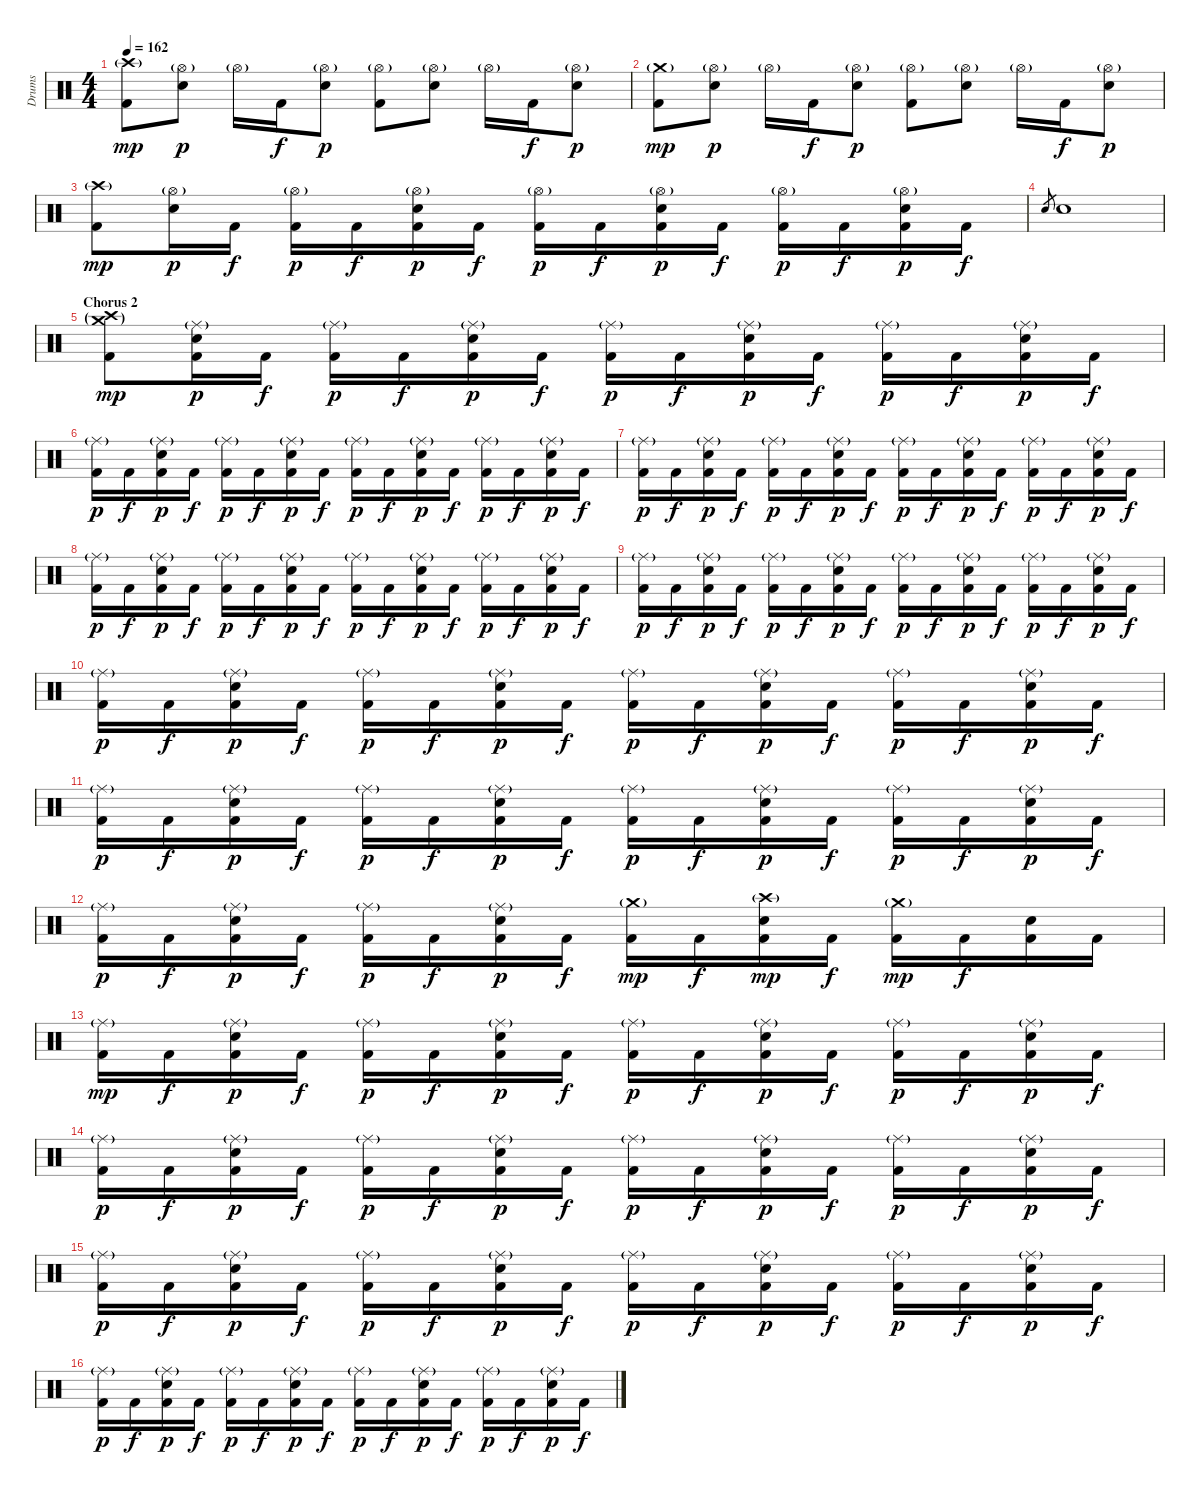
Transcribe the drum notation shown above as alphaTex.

\track ("Drums" "Drums") {instrument percussion}
\staff {score}
\articulation defaults
\ts (4 4)
\tempo 162
\clef neutral
\ks c
("Crash high (hit)"{g} "Kick (hit) 2").8{dy mp} ("Hi-Hat (open)"{g} "Snare (hit) 2").8{dy p} "Hi-Hat (open)"{g}.16 "Kick (hit) 2".16{dy f} ("Hi-Hat (open)"{g} "Snare (hit) 2").8{dy p} ("Hi-Hat (open)"{g} "Kick (hit) 2").8 ("Hi-Hat (open)"{g} "Snare (hit) 2").8 "Hi-Hat (open)"{g}.16 "Kick (hit) 2".16{dy f} ("Hi-Hat (open)"{g} "Snare (hit) 2").8{dy p} |
("Crash medium (hit)"{g} "Kick (hit) 2").8{dy mp} ("Hi-Hat (open)"{g} "Snare (hit) 2").8{dy p} "Hi-Hat (open)"{g}.16 "Kick (hit) 2".16{dy f} ("Hi-Hat (open)"{g} "Snare (hit) 2").8{dy p} ("Hi-Hat (open)"{g} "Kick (hit) 2").8 ("Hi-Hat (open)"{g} "Snare (hit) 2").8 "Hi-Hat (open)"{g}.16 "Kick (hit) 2".16{dy f} ("Hi-Hat (open)"{g} "Snare (hit) 2").8{dy p} |
("Crash high (hit)"{g} "Kick (hit) 2").8{dy mp} ("Hi-Hat (open)"{g} "Snare (hit) 2").16{dy p} "Kick (hit) 2".16{dy f} ("Hi-Hat (open)"{g} "Kick (hit) 2").16{dy p} "Kick (hit) 2".16{dy f} ("Hi-Hat (open)"{g} "Snare (hit) 2" "Kick (hit) 2").16{dy p} "Kick (hit) 2".16{dy f} ("Hi-Hat (open)"{g} "Kick (hit) 2").16{dy p} "Kick (hit) 2".16{dy f} ("Hi-Hat (open)"{g} "Snare (hit) 2" "Kick (hit) 2").16{dy p} "Kick (hit) 2".16{dy f} ("Hi-Hat (open)"{g} "Kick (hit) 2").16{dy p} "Kick (hit) 2".16{dy f} ("Hi-Hat (open)"{g} "Snare (hit) 2" "Kick (hit) 2").16{dy p} "Kick (hit) 2".16{dy f} |
"Snare (hit) 2".8{gr} "Snare (hit) 2".1 |
\section ("" "Chorus 2")
("Crash medium (hit)"{g} "Crash high (hit)"{g} "Kick (hit) 2").8{dy mp} ("Ride (middle)"{g} "Snare (hit) 2" "Kick (hit) 2").16{dy p} "Kick (hit) 2".16{dy f} ("Ride (middle)"{g} "Kick (hit) 2").16{dy p} "Kick (hit) 2".16{dy f} ("Ride (middle)"{g} "Snare (hit) 2" "Kick (hit) 2").16{dy p} "Kick (hit) 2".16{dy f} ("Ride (middle)"{g} "Kick (hit) 2").16{dy p} "Kick (hit) 2".16{dy f} ("Ride (middle)"{g} "Snare (hit) 2" "Kick (hit) 2").16{dy p} "Kick (hit) 2".16{dy f} ("Ride (middle)"{g} "Kick (hit) 2").16{dy p} "Kick (hit) 2".16{dy f} ("Ride (middle)"{g} "Snare (hit) 2" "Kick (hit) 2").16{dy p} "Kick (hit) 2".16{dy f} |
("Ride (middle)"{g} "Kick (hit) 2").16{dy p} "Kick (hit) 2".16{dy f} ("Ride (middle)"{g} "Snare (hit) 2" "Kick (hit) 2").16{dy p} "Kick (hit) 2".16{dy f} ("Ride (middle)"{g} "Kick (hit) 2").16{dy p} "Kick (hit) 2".16{dy f} ("Ride (middle)"{g} "Snare (hit) 2" "Kick (hit) 2").16{dy p} "Kick (hit) 2".16{dy f} ("Ride (middle)"{g} "Kick (hit) 2").16{dy p} "Kick (hit) 2".16{dy f} ("Ride (middle)"{g} "Snare (hit) 2" "Kick (hit) 2").16{dy p} "Kick (hit) 2".16{dy f} ("Ride (middle)"{g} "Kick (hit) 2").16{dy p} "Kick (hit) 2".16{dy f} ("Ride (middle)"{g} "Snare (hit) 2" "Kick (hit) 2").16{dy p} "Kick (hit) 2".16{dy f} |
("Ride (middle)"{g} "Kick (hit) 2").16{dy p} "Kick (hit) 2".16{dy f} ("Ride (middle)"{g} "Snare (hit) 2" "Kick (hit) 2").16{dy p} "Kick (hit) 2".16{dy f} ("Ride (middle)"{g} "Kick (hit) 2").16{dy p} "Kick (hit) 2".16{dy f} ("Ride (middle)"{g} "Snare (hit) 2" "Kick (hit) 2").16{dy p} "Kick (hit) 2".16{dy f} ("Ride (middle)"{g} "Kick (hit) 2").16{dy p} "Kick (hit) 2".16{dy f} ("Ride (middle)"{g} "Snare (hit) 2" "Kick (hit) 2").16{dy p} "Kick (hit) 2".16{dy f} ("Ride (middle)"{g} "Kick (hit) 2").16{dy p} "Kick (hit) 2".16{dy f} ("Ride (middle)"{g} "Snare (hit) 2" "Kick (hit) 2").16{dy p} "Kick (hit) 2".16{dy f} |
("Ride (middle)"{g} "Kick (hit) 2").16{dy p} "Kick (hit) 2".16{dy f} ("Ride (middle)"{g} "Snare (hit) 2" "Kick (hit) 2").16{dy p} "Kick (hit) 2".16{dy f} ("Ride (middle)"{g} "Kick (hit) 2").16{dy p} "Kick (hit) 2".16{dy f} ("Ride (middle)"{g} "Snare (hit) 2" "Kick (hit) 2").16{dy p} "Kick (hit) 2".16{dy f} ("Ride (middle)"{g} "Kick (hit) 2").16{dy p} "Kick (hit) 2".16{dy f} ("Ride (middle)"{g} "Snare (hit) 2" "Kick (hit) 2").16{dy p} "Kick (hit) 2".16{dy f} ("Ride (middle)"{g} "Kick (hit) 2").16{dy p} "Kick (hit) 2".16{dy f} ("Ride (middle)"{g} "Snare (hit) 2" "Kick (hit) 2").16{dy p} "Kick (hit) 2".16{dy f} |
("Ride (middle)"{g} "Kick (hit) 2").16{dy p} "Kick (hit) 2".16{dy f} ("Ride (middle)"{g} "Snare (hit) 2" "Kick (hit) 2").16{dy p} "Kick (hit) 2".16{dy f} ("Ride (middle)"{g} "Kick (hit) 2").16{dy p} "Kick (hit) 2".16{dy f} ("Ride (middle)"{g} "Snare (hit) 2" "Kick (hit) 2").16{dy p} "Kick (hit) 2".16{dy f} ("Ride (middle)"{g} "Kick (hit) 2").16{dy p} "Kick (hit) 2".16{dy f} ("Ride (middle)"{g} "Snare (hit) 2" "Kick (hit) 2").16{dy p} "Kick (hit) 2".16{dy f} ("Ride (middle)"{g} "Kick (hit) 2").16{dy p} "Kick (hit) 2".16{dy f} ("Ride (middle)"{g} "Snare (hit) 2" "Kick (hit) 2").16{dy p} "Kick (hit) 2".16{dy f} |
("Ride (middle)"{g} "Kick (hit) 2").16{dy p} "Kick (hit) 2".16{dy f} ("Ride (middle)"{g} "Snare (hit) 2" "Kick (hit) 2").16{dy p} "Kick (hit) 2".16{dy f} ("Ride (middle)"{g} "Kick (hit) 2").16{dy p} "Kick (hit) 2".16{dy f} ("Ride (middle)"{g} "Snare (hit) 2" "Kick (hit) 2").16{dy p} "Kick (hit) 2".16{dy f} ("Ride (middle)"{g} "Kick (hit) 2").16{dy p} "Kick (hit) 2".16{dy f} ("Ride (middle)"{g} "Snare (hit) 2" "Kick (hit) 2").16{dy p} "Kick (hit) 2".16{dy f} ("Ride (middle)"{g} "Kick (hit) 2").16{dy p} "Kick (hit) 2".16{dy f} ("Ride (middle)"{g} "Snare (hit) 2" "Kick (hit) 2").16{dy p} "Kick (hit) 2".16{dy f} |
("Ride (middle)"{g} "Kick (hit) 2").16{dy p} "Kick (hit) 2".16{dy f} ("Ride (middle)"{g} "Snare (hit) 2" "Kick (hit) 2").16{dy p} "Kick (hit) 2".16{dy f} ("Ride (middle)"{g} "Kick (hit) 2").16{dy p} "Kick (hit) 2".16{dy f} ("Ride (middle)"{g} "Snare (hit) 2" "Kick (hit) 2").16{dy p} "Kick (hit) 2".16{dy f} ("Ride (middle)"{g} "Kick (hit) 2").16{dy p} "Kick (hit) 2".16{dy f} ("Ride (middle)"{g} "Snare (hit) 2" "Kick (hit) 2").16{dy p} "Kick (hit) 2".16{dy f} ("Ride (middle)"{g} "Kick (hit) 2").16{dy p} "Kick (hit) 2".16{dy f} ("Ride (middle)"{g} "Snare (hit) 2" "Kick (hit) 2").16{dy p} "Kick (hit) 2".16{dy f} |
("Ride (middle)"{g} "Kick (hit) 2").16{dy p} "Kick (hit) 2".16{dy f} ("Ride (middle)"{g} "Snare (hit) 2" "Kick (hit) 2").16{dy p} "Kick (hit) 2".16{dy f} ("Ride (middle)"{g} "Kick (hit) 2").16{dy p} "Kick (hit) 2".16{dy f} ("Ride (middle)"{g} "Snare (hit) 2" "Kick (hit) 2").16{dy p} "Kick (hit) 2".16{dy f} ("Crash medium (hit)"{g} "Kick (hit) 2").16{dy mp} "Kick (hit) 2".16{dy f} ("Crash high (hit)"{g} "Snare (hit) 2" "Kick (hit) 2").16{dy mp} "Kick (hit) 2".16{dy f} ("Crash medium (hit)"{g} "Kick (hit) 2").16{dy mp} "Kick (hit) 2".16{dy f} ("Snare (hit) 2" "Kick (hit) 2").16 "Kick (hit) 2".16 |
("Ride (middle)"{g} "Kick (hit) 2").16{dy mp} "Kick (hit) 2".16{dy f} ("Ride (middle)"{g} "Snare (hit) 2" "Kick (hit) 2").16{dy p} "Kick (hit) 2".16{dy f} ("Ride (middle)"{g} "Kick (hit) 2").16{dy p} "Kick (hit) 2".16{dy f} ("Ride (middle)"{g} "Snare (hit) 2" "Kick (hit) 2").16{dy p} "Kick (hit) 2".16{dy f} ("Ride (middle)"{g} "Kick (hit) 2").16{dy p} "Kick (hit) 2".16{dy f} ("Ride (middle)"{g} "Snare (hit) 2" "Kick (hit) 2").16{dy p} "Kick (hit) 2".16{dy f} ("Ride (middle)"{g} "Kick (hit) 2").16{dy p} "Kick (hit) 2".16{dy f} ("Ride (middle)"{g} "Snare (hit) 2" "Kick (hit) 2").16{dy p} "Kick (hit) 2".16{dy f} |
("Ride (middle)"{g} "Kick (hit) 2").16{dy p} "Kick (hit) 2".16{dy f} ("Ride (middle)"{g} "Snare (hit) 2" "Kick (hit) 2").16{dy p} "Kick (hit) 2".16{dy f} ("Ride (middle)"{g} "Kick (hit) 2").16{dy p} "Kick (hit) 2".16{dy f} ("Ride (middle)"{g} "Snare (hit) 2" "Kick (hit) 2").16{dy p} "Kick (hit) 2".16{dy f} ("Ride (middle)"{g} "Kick (hit) 2").16{dy p} "Kick (hit) 2".16{dy f} ("Ride (middle)"{g} "Snare (hit) 2" "Kick (hit) 2").16{dy p} "Kick (hit) 2".16{dy f} ("Ride (middle)"{g} "Kick (hit) 2").16{dy p} "Kick (hit) 2".16{dy f} ("Ride (middle)"{g} "Snare (hit) 2" "Kick (hit) 2").16{dy p} "Kick (hit) 2".16{dy f} |
("Ride (middle)"{g} "Kick (hit) 2").16{dy p} "Kick (hit) 2".16{dy f} ("Ride (middle)"{g} "Snare (hit) 2" "Kick (hit) 2").16{dy p} "Kick (hit) 2".16{dy f} ("Ride (middle)"{g} "Kick (hit) 2").16{dy p} "Kick (hit) 2".16{dy f} ("Ride (middle)"{g} "Snare (hit) 2" "Kick (hit) 2").16{dy p} "Kick (hit) 2".16{dy f} ("Ride (middle)"{g} "Kick (hit) 2").16{dy p} "Kick (hit) 2".16{dy f} ("Ride (middle)"{g} "Snare (hit) 2" "Kick (hit) 2").16{dy p} "Kick (hit) 2".16{dy f} ("Ride (middle)"{g} "Kick (hit) 2").16{dy p} "Kick (hit) 2".16{dy f} ("Ride (middle)"{g} "Snare (hit) 2" "Kick (hit) 2").16{dy p} "Kick (hit) 2".16{dy f} |
("Ride (middle)"{g} "Kick (hit) 2").16{dy p} "Kick (hit) 2".16{dy f} ("Ride (middle)"{g} "Snare (hit) 2" "Kick (hit) 2").16{dy p} "Kick (hit) 2".16{dy f} ("Ride (middle)"{g} "Kick (hit) 2").16{dy p} "Kick (hit) 2".16{dy f} ("Ride (middle)"{g} "Snare (hit) 2" "Kick (hit) 2").16{dy p} "Kick (hit) 2".16{dy f} ("Ride (middle)"{g} "Kick (hit) 2").16{dy p} "Kick (hit) 2".16{dy f} ("Ride (middle)"{g} "Snare (hit) 2" "Kick (hit) 2").16{dy p} "Kick (hit) 2".16{dy f} ("Ride (middle)"{g} "Kick (hit) 2").16{dy p} "Kick (hit) 2".16{dy f} ("Ride (middle)"{g} "Snare (hit) 2" "Kick (hit) 2").16{dy p} "Kick (hit) 2".16{dy f}
